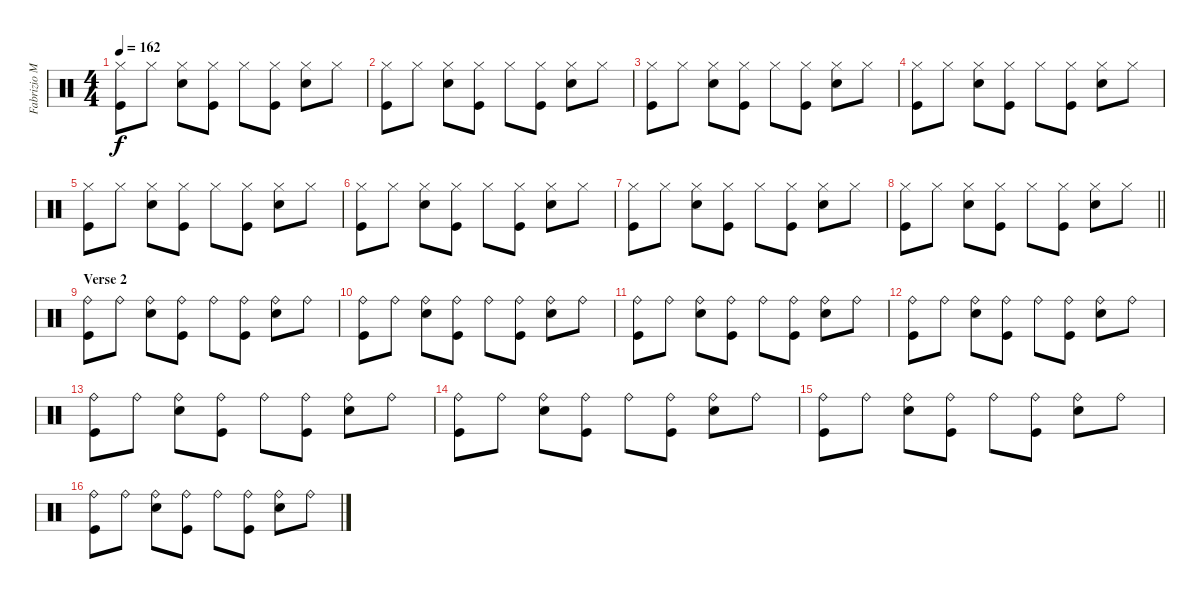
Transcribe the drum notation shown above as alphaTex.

\track ("Fabrizio Moretti" "Fabrizio M") {instrument percussion}
\staff {score}
\articulation defaults
\ts (4 4)
\tempo 162
\clef neutral
\ks c
("Hi-Hat (closed)" "Kick (hit)").8{dy f} "Hi-Hat (closed)".8 ("Hi-Hat (closed)" "Snare (hit) 2").8 ("Hi-Hat (closed)" "Kick (hit)").8 "Hi-Hat (closed)".8 ("Hi-Hat (closed)" "Kick (hit)").8 ("Hi-Hat (closed)" "Snare (hit) 2").8 "Hi-Hat (closed)".8 |
("Hi-Hat (closed)" "Kick (hit)").8 "Hi-Hat (closed)".8 ("Hi-Hat (closed)" "Snare (hit) 2").8 ("Hi-Hat (closed)" "Kick (hit)").8 "Hi-Hat (closed)".8 ("Hi-Hat (closed)" "Kick (hit)").8 ("Hi-Hat (closed)" "Snare (hit) 2").8 "Hi-Hat (closed)".8 |
("Hi-Hat (closed)" "Kick (hit)").8 "Hi-Hat (closed)".8 ("Hi-Hat (closed)" "Snare (hit) 2").8 ("Hi-Hat (closed)" "Kick (hit)").8 "Hi-Hat (closed)".8 ("Hi-Hat (closed)" "Kick (hit)").8 ("Hi-Hat (closed)" "Snare (hit) 2").8 "Hi-Hat (closed)".8 |
("Hi-Hat (closed)" "Kick (hit)").8 "Hi-Hat (closed)".8 ("Hi-Hat (closed)" "Snare (hit) 2").8 ("Hi-Hat (closed)" "Kick (hit)").8 "Hi-Hat (closed)".8 ("Hi-Hat (closed)" "Kick (hit)").8 ("Hi-Hat (closed)" "Snare (hit) 2").8 "Hi-Hat (closed)".8 |
("Hi-Hat (closed)" "Kick (hit)").8 "Hi-Hat (closed)".8 ("Hi-Hat (closed)" "Snare (hit) 2").8 ("Hi-Hat (closed)" "Kick (hit)").8 "Hi-Hat (closed)".8 ("Hi-Hat (closed)" "Kick (hit)").8 ("Hi-Hat (closed)" "Snare (hit) 2").8 "Hi-Hat (closed)".8 |
("Hi-Hat (closed)" "Kick (hit)").8 "Hi-Hat (closed)".8 ("Hi-Hat (closed)" "Snare (hit) 2").8 ("Hi-Hat (closed)" "Kick (hit)").8 "Hi-Hat (closed)".8 ("Hi-Hat (closed)" "Kick (hit)").8 ("Hi-Hat (closed)" "Snare (hit) 2").8 "Hi-Hat (closed)".8 |
("Hi-Hat (closed)" "Kick (hit)").8 "Hi-Hat (closed)".8 ("Hi-Hat (closed)" "Snare (hit) 2").8 ("Hi-Hat (closed)" "Kick (hit)").8 "Hi-Hat (closed)".8 ("Hi-Hat (closed)" "Kick (hit)").8 ("Hi-Hat (closed)" "Snare (hit) 2").8 "Hi-Hat (closed)".8 |
\barLineRight lightlight
("Hi-Hat (closed)" "Kick (hit)").8 "Hi-Hat (closed)".8 ("Hi-Hat (closed)" "Snare (hit) 2").8 ("Hi-Hat (closed)" "Kick (hit)").8 "Hi-Hat (closed)".8 ("Hi-Hat (closed)" "Kick (hit)").8 ("Hi-Hat (closed)" "Snare (hit) 2").8 "Hi-Hat (closed)".8 |
\section ("" "Verse 2")
("Ride (bell)" "Kick (hit)").8 "Ride (bell)".8 ("Ride (bell)" "Snare (hit) 2").8 ("Ride (bell)" "Kick (hit)").8 "Ride (bell)".8 ("Ride (bell)" "Kick (hit)").8 ("Ride (bell)" "Snare (hit) 2").8 "Ride (bell)".8 |
("Ride (bell)" "Kick (hit)").8 "Ride (bell)".8 ("Ride (bell)" "Snare (hit) 2").8 ("Ride (bell)" "Kick (hit)").8 "Ride (bell)".8 ("Ride (bell)" "Kick (hit)").8 ("Ride (bell)" "Snare (hit) 2").8 "Ride (bell)".8 |
("Ride (bell)" "Kick (hit)").8 "Ride (bell)".8 ("Ride (bell)" "Snare (hit) 2").8 ("Ride (bell)" "Kick (hit)").8 "Ride (bell)".8 ("Ride (bell)" "Kick (hit)").8 ("Ride (bell)" "Snare (hit) 2").8 "Ride (bell)".8 |
("Ride (bell)" "Kick (hit)").8 "Ride (bell)".8 ("Ride (bell)" "Snare (hit) 2").8 ("Ride (bell)" "Kick (hit)").8 "Ride (bell)".8 ("Ride (bell)" "Kick (hit)").8 ("Ride (bell)" "Snare (hit) 2").8 "Ride (bell)".8 |
("Ride (bell)" "Kick (hit)").8 "Ride (bell)".8 ("Ride (bell)" "Snare (hit) 2").8 ("Ride (bell)" "Kick (hit)").8 "Ride (bell)".8 ("Ride (bell)" "Kick (hit)").8 ("Ride (bell)" "Snare (hit) 2").8 "Ride (bell)".8 |
("Ride (bell)" "Kick (hit)").8 "Ride (bell)".8 ("Ride (bell)" "Snare (hit) 2").8 ("Ride (bell)" "Kick (hit)").8 "Ride (bell)".8 ("Ride (bell)" "Kick (hit)").8 ("Ride (bell)" "Snare (hit) 2").8 "Ride (bell)".8 |
("Ride (bell)" "Kick (hit)").8 "Ride (bell)".8 ("Ride (bell)" "Snare (hit) 2").8 ("Ride (bell)" "Kick (hit)").8 "Ride (bell)".8 ("Ride (bell)" "Kick (hit)").8 ("Ride (bell)" "Snare (hit) 2").8 "Ride (bell)".8 |
("Ride (bell)" "Kick (hit)").8 "Ride (bell)".8 ("Ride (bell)" "Snare (hit) 2").8 ("Ride (bell)" "Kick (hit)").8 "Ride (bell)".8 ("Ride (bell)" "Kick (hit)").8 ("Ride (bell)" "Snare (hit) 2").8 "Ride (bell)".8
